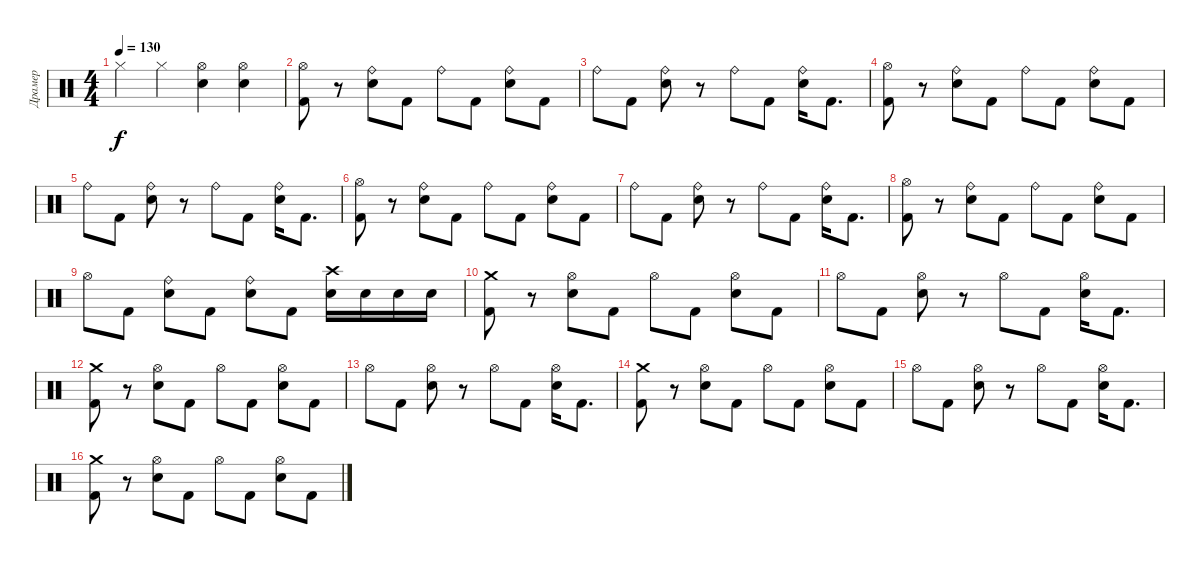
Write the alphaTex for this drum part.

\track ("Драмер" "Драмер") {instrument percussion}
\staff {score}
\articulation defaults
\ts (4 4)
\tempo 130
\clef neutral
\ks c "Hi-Hat (closed)".4{dy f} "Hi-Hat (closed)".4
("Electric Snare (hit)" "Hi-Hat (open)").4 ("Electric Snare (hit)" "Hi-Hat (open)").4 |
("Hi-Hat (open)" "Kick (hit) 2").8 r.8 ("Ride (bell)" "Electric Snare (hit)").8 "Kick (hit) 2".8 "Ride (bell)".8 "Kick (hit) 2".8 ("Ride (bell)" "Electric Snare (hit)").8 "Kick (hit) 2".8 |
"Ride (bell)".8 "Kick (hit) 2".8 ("Ride (bell)" "Electric Snare (hit)").8 r.8 "Ride (bell)".8 "Kick (hit) 2".8 ("Ride (bell)" "Electric Snare (hit)").16 "Kick (hit) 2".8{d} |
("Hi-Hat (open)" "Kick (hit) 2").8 r.8 ("Ride (bell)" "Electric Snare (hit)").8 "Kick (hit) 2".8 "Ride (bell)".8 "Kick (hit) 2".8 ("Ride (bell)" "Electric Snare (hit)").8 "Kick (hit) 2".8 |
"Ride (bell)".8 "Kick (hit) 2".8 ("Ride (bell)" "Electric Snare (hit)").8 r.8 "Ride (bell)".8 "Kick (hit) 2".8 ("Ride (bell)" "Electric Snare (hit)").16 "Kick (hit) 2".8{d} |
("Hi-Hat (open)" "Kick (hit) 2").8 r.8 ("Ride (bell)" "Electric Snare (hit)").8 "Kick (hit) 2".8 "Ride (bell)".8 "Kick (hit) 2".8 ("Ride (bell)" "Electric Snare (hit)").8 "Kick (hit) 2".8 |
"Ride (bell)".8 "Kick (hit) 2".8 ("Ride (bell)" "Electric Snare (hit)").8 r.8 "Ride (bell)".8 "Kick (hit) 2".8 ("Ride (bell)" "Electric Snare (hit)").16 "Kick (hit) 2".8{d} |
("Hi-Hat (open)" "Kick (hit) 2").8 r.8 ("Ride (bell)" "Electric Snare (hit)").8 "Kick (hit) 2".8 "Ride (bell)".8 "Kick (hit) 2".8 ("Ride (bell)" "Electric Snare (hit)").8 "Kick (hit) 2".8 |
"Hi-Hat (open)".8 "Kick (hit) 2".8 ("Ride (bell)" "Electric Snare (hit)").8 "Kick (hit) 2".8 ("Ride (bell)" "Electric Snare (hit)").8 "Kick (hit) 2".8 ("Crash high (hit)" "Electric Snare (hit)").16 "Electric Snare (hit)".16 "Electric Snare (hit)".16 "Electric Snare (hit)".16 |
("Crash medium (hit)" "Kick (hit) 2").8 r.8 ("Hi-Hat (open)" "Electric Snare (hit)").8 "Kick (hit) 2".8 "Hi-Hat (open)".8 "Kick (hit) 2".8 ("Hi-Hat (open)" "Electric Snare (hit)").8 "Kick (hit) 2".8 |
"Hi-Hat (open)".8 "Kick (hit) 2".8 ("Hi-Hat (open)" "Electric Snare (hit)").8 r.8 "Hi-Hat (open)".8 "Kick (hit) 2".8 ("Hi-Hat (open)" "Electric Snare (hit)").16 "Kick (hit) 2".8{d} |
("Crash medium (hit)" "Kick (hit) 2").8 r.8 ("Hi-Hat (open)" "Electric Snare (hit)").8 "Kick (hit) 2".8 "Hi-Hat (open)".8 "Kick (hit) 2".8 ("Hi-Hat (open)" "Electric Snare (hit)").8 "Kick (hit) 2".8 |
"Hi-Hat (open)".8 "Kick (hit) 2".8 ("Hi-Hat (open)" "Electric Snare (hit)").8 r.8 "Hi-Hat (open)".8 "Kick (hit) 2".8 ("Hi-Hat (open)" "Electric Snare (hit)").16 "Kick (hit) 2".8{d} |
("Crash medium (hit)" "Kick (hit) 2").8 r.8 ("Hi-Hat (open)" "Electric Snare (hit)").8 "Kick (hit) 2".8 "Hi-Hat (open)".8 "Kick (hit) 2".8 ("Hi-Hat (open)" "Electric Snare (hit)").8 "Kick (hit) 2".8 |
"Hi-Hat (open)".8 "Kick (hit) 2".8 ("Hi-Hat (open)" "Electric Snare (hit)").8 r.8 "Hi-Hat (open)".8 "Kick (hit) 2".8 ("Hi-Hat (open)" "Electric Snare (hit)").16 "Kick (hit) 2".8{d} |
("Crash medium (hit)" "Kick (hit) 2").8 r.8 ("Hi-Hat (open)" "Electric Snare (hit)").8 "Kick (hit) 2".8 "Hi-Hat (open)".8 "Kick (hit) 2".8 ("Hi-Hat (open)" "Electric Snare (hit)").8 "Kick (hit) 2".8
